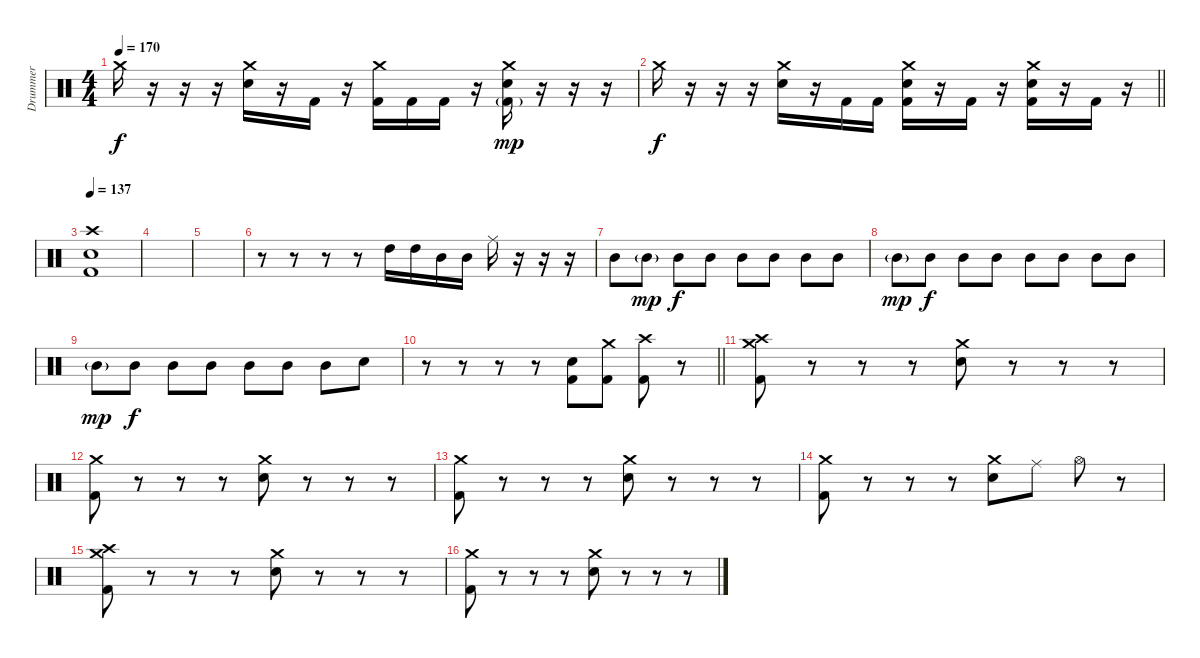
\track ("Drummer" "Drummer") {instrument percussion}
\staff {score}
\articulation defaults
\ts (4 4)
\tempo 170
\clef neutral
\ks c "Crash medium (hit)".16{dy f}
r.16 r.16 r.16 ("Crash medium (hit)" "Snare (hit) 2").16 r.16 "Kick (hit) 2".16 r.16 ("Crash medium (hit)" "Kick (hit) 2").16 "Kick (hit) 2".16 "Kick (hit) 2".16 r.16 ("Crash medium (hit)" "Snare (hit) 2" "Kick (hit) 2"{g}).16{dy mp} r.16 r.16 r.16 |
\barLineRight lightlight "Crash medium (hit)".16{dy f}
r.16 r.16 r.16 ("Crash medium (hit)" "Snare (hit) 2").16 r.16 "Kick (hit) 2".16 "Kick (hit) 2".16 ("Crash medium (hit)" "Snare (hit) 2" "Kick (hit) 2").16 r.16 "Kick (hit) 2".16 r.16 ("Crash medium (hit)" "Snare (hit) 2" "Kick (hit) 2").16 r.16 "Kick (hit) 2".16 r.16 |
\tempo 137
("Crash high (hit)" "Electric Snare (hit)" "Kick (hit) 2").1 |
|
|
r.8 r.8 r.8 r.8 "High Tom (hit)".16 "High Tom (hit)".16 "Mid Tom (hit)".16 "Mid Tom (hit)".16 "Ride (middle)".16 r.16 r.16 r.16 |
"Mid Tom (hit)".8 "Mid Tom (hit)"{g}.8{dy mp} "Mid Tom (hit)".8{dy f} "Mid Tom (hit)".8 "Mid Tom (hit)".8 "Mid Tom (hit)".8 "Mid Tom (hit)".8 "Mid Tom (hit)".8 |
"Mid Tom (hit)"{g}.8{dy mp} "Mid Tom (hit)".8{dy f} "Mid Tom (hit)".8 "Mid Tom (hit)".8 "Mid Tom (hit)".8 "Mid Tom (hit)".8 "Mid Tom (hit)".8 "Mid Tom (hit)".8 |
"Mid Tom (hit)"{g}.8{dy mp} "Mid Tom (hit)".8{dy f} "Mid Tom (hit)".8 "Mid Tom (hit)".8 "Mid Tom (hit)".8 "Mid Tom (hit)".8 "Mid Tom (hit)".8 "Snare (hit) 2".8 |
\barLineRight lightlight
r.8 r.8 r.8 r.8 ("Snare (hit) 2" "Kick (hit) 2").8 ("Crash medium (hit)" "Kick (hit) 2").8 ("Crash high (hit)" "Kick (hit) 2").8 r.8 |
("Crash medium (hit)" "Crash high (hit)" "Kick (hit) 2").8 r.8 r.8 r.8 ("Crash medium (hit)" "Snare (hit) 2").8 r.8 r.8 r.8 |
("Crash medium (hit)" "Kick (hit) 2").8 r.8 r.8 r.8 ("Crash medium (hit)" "Snare (hit) 2").8 r.8 r.8 r.8 |
("Crash medium (hit)" "Kick (hit) 2").8 r.8 r.8 r.8 ("Crash medium (hit)" "Snare (hit) 2").8 r.8 r.8 r.8 |
("Crash medium (hit)" "Kick (hit) 2").8 r.8 r.8 r.8 ("Crash medium (hit)" "Snare (hit) 2").8 "Ride (middle)".8 "Hi-Hat (open)".8 r.8 |
("Crash medium (hit)" "Crash high (hit)" "Kick (hit) 2").8 r.8 r.8 r.8 ("Crash medium (hit)" "Snare (hit) 2").8 r.8 r.8 r.8 |
("Crash medium (hit)" "Kick (hit) 2").8 r.8 r.8 r.8 ("Crash medium (hit)" "Snare (hit) 2").8 r.8 r.8 r.8
